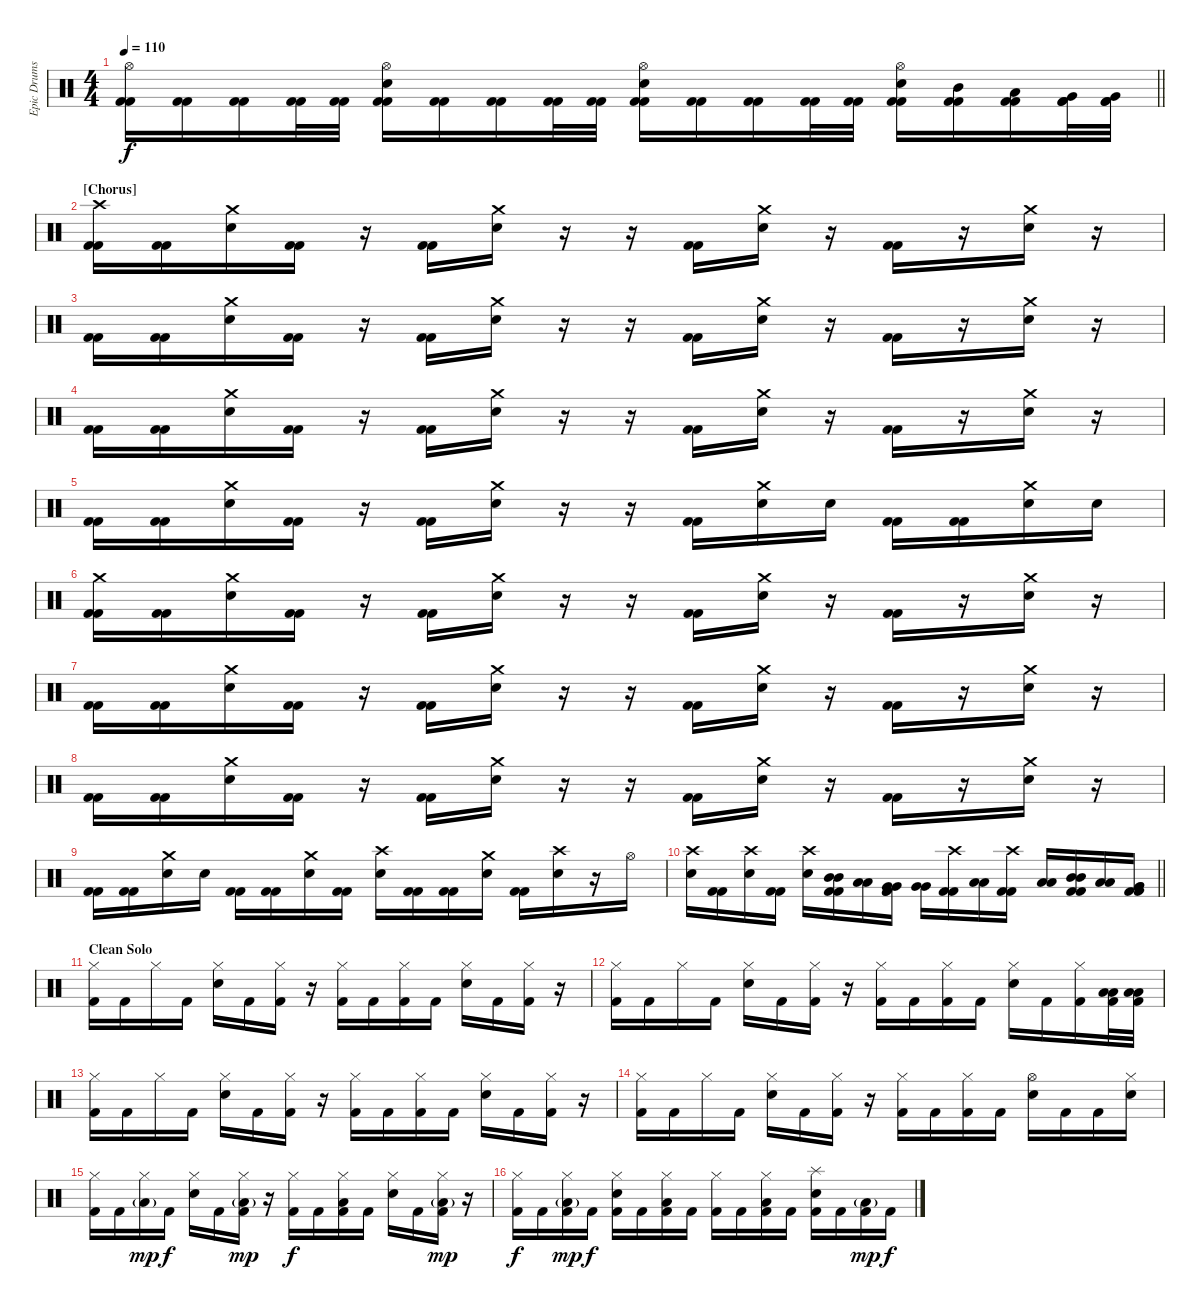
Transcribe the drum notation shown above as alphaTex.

\track ("Epic Drums" "Epic Drums") {instrument percussion}
\staff {score}
\articulation defaults
\ts (4 4)
\tempo 110
\clef neutral
\barLineRight lightlight
\ks c
("Hi-Hat (open)" "Kick (hit) 2" "Kick (hit) 2").16{dy f} ("Kick (hit) 2" "Kick (hit) 2").16 ("Kick (hit) 2" "Kick (hit) 2").16 ("Kick (hit) 2" "Kick (hit) 2").32 ("Kick (hit) 2" "Kick (hit) 2").32 ("Hi-Hat (open)" "Electric Snare (hit)" "Kick (hit) 2" "Kick (hit) 2").16 ("Kick (hit) 2" "Kick (hit) 2").16 ("Kick (hit) 2" "Kick (hit) 2").16 ("Kick (hit) 2" "Kick (hit) 2").32 ("Kick (hit) 2" "Kick (hit) 2").32 ("Hi-Hat (open)" "Electric Snare (hit)" "Kick (hit) 2" "Kick (hit) 2").16 ("Kick (hit) 2" "Kick (hit) 2").16 ("Kick (hit) 2" "Kick (hit) 2").16 ("Kick (hit) 2" "Kick (hit) 2").32 ("Kick (hit) 2" "Kick (hit) 2").32 ("Hi-Hat (open)" "Electric Snare (hit)" "Kick (hit) 2" "Kick (hit) 2").16 ("Mid Tom (hit)" "Kick (hit) 2" "Kick (hit) 2").16 ("Low Tom (hit)" "Kick (hit) 2" "Kick (hit) 2").16 ("Very Low Tom (hit)" "Kick (hit) 2" "Kick (hit) 2").32 ("Very Low Tom (hit)" "Kick (hit) 2" "Kick (hit) 2").32 |
\section ("" "[Chorus]")
("Crash high (hit)" "Kick (hit) 2" "Kick (hit) 2").16 ("Kick (hit) 2" "Kick (hit) 2").16 ("Crash medium (hit)" "Electric Snare (hit)").16 ("Kick (hit) 2" "Kick (hit) 2").16 r.16 ("Kick (hit) 2" "Kick (hit) 2").16 ("Crash medium (hit)" "Electric Snare (hit)").16 r.16 r.16 ("Kick (hit) 2" "Kick (hit) 2").16 ("Crash medium (hit)" "Electric Snare (hit)").16 r.16 ("Kick (hit) 2" "Kick (hit) 2").16 r.16 ("Crash medium (hit)" "Electric Snare (hit)").16 r.16 |
("Kick (hit) 2" "Kick (hit) 2").16 ("Kick (hit) 2" "Kick (hit) 2").16 ("Crash medium (hit)" "Electric Snare (hit)").16 ("Kick (hit) 2" "Kick (hit) 2").16 r.16 ("Kick (hit) 2" "Kick (hit) 2").16 ("Crash medium (hit)" "Electric Snare (hit)").16 r.16 r.16 ("Kick (hit) 2" "Kick (hit) 2").16 ("Crash medium (hit)" "Electric Snare (hit)").16 r.16 ("Kick (hit) 2" "Kick (hit) 2").16 r.16 ("Crash medium (hit)" "Electric Snare (hit)").16 r.16 |
("Kick (hit) 2" "Kick (hit) 2").16 ("Kick (hit) 2" "Kick (hit) 2").16 ("Crash medium (hit)" "Electric Snare (hit)").16 ("Kick (hit) 2" "Kick (hit) 2").16 r.16 ("Kick (hit) 2" "Kick (hit) 2").16 ("Crash medium (hit)" "Electric Snare (hit)").16 r.16 r.16 ("Kick (hit) 2" "Kick (hit) 2").16 ("Crash medium (hit)" "Electric Snare (hit)").16 r.16 ("Kick (hit) 2" "Kick (hit) 2").16 r.16 ("Crash medium (hit)" "Electric Snare (hit)").16 r.16 |
("Kick (hit) 2" "Kick (hit) 2").16 ("Kick (hit) 2" "Kick (hit) 2").16 ("Crash medium (hit)" "Electric Snare (hit)").16 ("Kick (hit) 2" "Kick (hit) 2").16 r.16 ("Kick (hit) 2" "Kick (hit) 2").16 ("Crash medium (hit)" "Electric Snare (hit)").16 r.16 r.16 ("Kick (hit) 2" "Kick (hit) 2").16 ("Crash medium (hit)" "Electric Snare (hit)").16 "Electric Snare (hit)".16 ("Kick (hit) 2" "Kick (hit) 2").16 ("Kick (hit) 2" "Kick (hit) 2").16 ("Crash medium (hit)" "Electric Snare (hit)").16 "Electric Snare (hit)".16 |
("Crash medium (hit)" "Kick (hit) 2" "Kick (hit) 2").16 ("Kick (hit) 2" "Kick (hit) 2").16 ("Crash medium (hit)" "Electric Snare (hit)").16 ("Kick (hit) 2" "Kick (hit) 2").16 r.16 ("Kick (hit) 2" "Kick (hit) 2").16 ("Crash medium (hit)" "Electric Snare (hit)").16 r.16 r.16 ("Kick (hit) 2" "Kick (hit) 2").16 ("Crash medium (hit)" "Electric Snare (hit)").16 r.16 ("Kick (hit) 2" "Kick (hit) 2").16 r.16 ("Crash medium (hit)" "Electric Snare (hit)").16 r.16 |
("Kick (hit) 2" "Kick (hit) 2").16 ("Kick (hit) 2" "Kick (hit) 2").16 ("Crash medium (hit)" "Electric Snare (hit)").16 ("Kick (hit) 2" "Kick (hit) 2").16 r.16 ("Kick (hit) 2" "Kick (hit) 2").16 ("Crash medium (hit)" "Electric Snare (hit)").16 r.16 r.16 ("Kick (hit) 2" "Kick (hit) 2").16 ("Crash medium (hit)" "Electric Snare (hit)").16 r.16 ("Kick (hit) 2" "Kick (hit) 2").16 r.16 ("Crash medium (hit)" "Electric Snare (hit)").16 r.16 |
("Kick (hit) 2" "Kick (hit) 2").16 ("Kick (hit) 2" "Kick (hit) 2").16 ("Crash medium (hit)" "Electric Snare (hit)").16 ("Kick (hit) 2" "Kick (hit) 2").16 r.16 ("Kick (hit) 2" "Kick (hit) 2").16 ("Crash medium (hit)" "Electric Snare (hit)").16 r.16 r.16 ("Kick (hit) 2" "Kick (hit) 2").16 ("Crash medium (hit)" "Electric Snare (hit)").16 r.16 ("Kick (hit) 2" "Kick (hit) 2").16 r.16 ("Crash medium (hit)" "Electric Snare (hit)").16 r.16 |
("Kick (hit) 2" "Kick (hit) 2").16 ("Kick (hit) 2" "Kick (hit) 2").16 ("Crash medium (hit)" "Electric Snare (hit)").16 "Electric Snare (hit)".16 ("Kick (hit) 2" "Kick (hit) 2").16 ("Kick (hit) 2" "Kick (hit) 2").16 ("Crash medium (hit)" "Electric Snare (hit)").16 ("Kick (hit) 2" "Kick (hit) 2").16 ("Crash high (hit)" "Electric Snare (hit)").16 ("Kick (hit) 2" "Kick (hit) 2").16 ("Kick (hit) 2" "Kick (hit) 2").16 ("Crash medium (hit)" "Electric Snare (hit)").16 ("Kick (hit) 2" "Kick (hit) 2").16 ("Crash high (hit)" "Electric Snare (hit)").16 r.16 "Hi-Hat (open)".16 |
\barLineRight lightlight
("Crash high (hit)" "Electric Snare (hit)").16 ("Kick (hit) 2" "Kick (hit) 2").16 ("Crash high (hit)" "Electric Snare (hit)").16 ("Kick (hit) 2" "Kick (hit) 2").16 ("Crash high (hit)" "Electric Snare (hit)").16 ("Mid Tom (hit)" "Mid Tom (hit)" "Kick (hit) 2" "Kick (hit) 2").16 ("Low Tom (hit)" "Low Tom (hit)").16 ("Very Low Tom (hit)" "Very Low Tom (hit)" "Kick (hit) 2" "Kick (hit) 2").16 ("Very Low Tom (hit)" "Very Low Tom (hit)").16 ("Crash high (hit)" "Kick (hit) 2" "Kick (hit) 2").16 ("Low Tom (hit)" "Low Tom (hit)").16 ("Crash high (hit)" "Kick (hit) 2" "Kick (hit) 2").16 ("Low Tom (hit)" "Low Tom (hit)").16 ("Mid Tom (hit)" "Mid Tom (hit)" "Kick (hit) 2" "Kick (hit) 2").16 ("Low Tom (hit)" "Low Tom (hit)").16 ("Very Low Tom (hit)" "Very Low Tom (hit)" "Kick (hit) 2" "Kick (hit) 2").16 |
\section ("" "Clean Solo")
("Hi-Hat (closed)" "Kick (hit) 2").16 "Kick (hit) 2".16 "Hi-Hat (closed)".16 "Kick (hit) 2".16 ("Hi-Hat (closed)" "Snare (hit) 2").16 "Kick (hit) 2".16 ("Hi-Hat (closed)" "Kick (hit) 2").16 r.16 ("Hi-Hat (closed)" "Kick (hit) 2").16 "Kick (hit) 2".16 ("Hi-Hat (closed)" "Kick (hit) 2").16 "Kick (hit) 2".16 ("Hi-Hat (closed)" "Snare (hit) 2").16 "Kick (hit) 2".16 ("Hi-Hat (closed)" "Kick (hit) 2").16 r.16 |
("Hi-Hat (closed)" "Kick (hit) 2").16 "Kick (hit) 2".16 "Hi-Hat (closed)".16 "Kick (hit) 2".16 ("Hi-Hat (closed)" "Snare (hit) 2").16 "Kick (hit) 2".16 ("Hi-Hat (closed)" "Kick (hit) 2").16 r.16 ("Hi-Hat (closed)" "Kick (hit) 2").16 "Kick (hit) 2".16 ("Hi-Hat (closed)" "Kick (hit) 2").16 "Kick (hit) 2".16 ("Hi-Hat (closed)" "Snare (hit) 2").16 "Kick (hit) 2".16 ("Hi-Hat (closed)" "Kick (hit) 2").16 ("Low Tom (hit)" "Low Tom (hit)" "Kick (hit) 2").32 ("Low Tom (hit)" "Low Tom (hit)" "Kick (hit) 2").32 |
("Hi-Hat (closed)" "Kick (hit) 2").16 "Kick (hit) 2".16 "Hi-Hat (closed)".16 "Kick (hit) 2".16 ("Hi-Hat (closed)" "Snare (hit) 2").16 "Kick (hit) 2".16 ("Hi-Hat (closed)" "Kick (hit) 2").16 r.16 ("Hi-Hat (closed)" "Kick (hit) 2").16 "Kick (hit) 2".16 ("Hi-Hat (closed)" "Kick (hit) 2").16 "Kick (hit) 2".16 ("Hi-Hat (closed)" "Snare (hit) 2").16 "Kick (hit) 2".16 ("Hi-Hat (closed)" "Kick (hit) 2").16 r.16 |
("Hi-Hat (closed)" "Kick (hit) 2").16 "Kick (hit) 2".16 "Hi-Hat (closed)".16 "Kick (hit) 2".16 ("Hi-Hat (closed)" "Snare (hit) 2").16 "Kick (hit) 2".16 ("Hi-Hat (closed)" "Kick (hit) 2").16 r.16 ("Hi-Hat (closed)" "Kick (hit) 2").16 "Kick (hit) 2".16 ("Hi-Hat (closed)" "Kick (hit) 2").16 "Kick (hit) 2".16 ("Hi-Hat (open)" "Electric Snare (hit)").16 "Kick (hit) 2".16 "Kick (hit) 2".16 ("Hi-Hat (closed)" "Electric Snare (hit)").16 |
("Hi-Hat (closed)" "Kick (hit) 2").16 "Kick (hit) 2".16 ("Low Tom (hit)"{g} "Hi-Hat (closed)").16{dy mp} "Kick (hit) 2".16{dy f} ("Hi-Hat (closed)" "Snare (hit) 2").16 "Kick (hit) 2".16 ("Low Tom (hit)"{g} "Hi-Hat (closed)" "Kick (hit) 2").16{dy mp} r.16 ("Hi-Hat (closed)" "Kick (hit) 2").16{dy f} "Kick (hit) 2".16 ("Low Tom (hit)" "Hi-Hat (closed)" "Kick (hit) 2").16 "Kick (hit) 2".16 ("Hi-Hat (closed)" "Snare (hit) 2").16 "Kick (hit) 2".16 ("Low Tom (hit)"{g} "Hi-Hat (closed)" "Kick (hit) 2").16{dy mp} r.16 |
("Hi-Hat (closed)" "Kick (hit) 2").16{dy f} "Kick (hit) 2".16 ("Low Tom (hit)"{g} "Hi-Hat (closed)" "Kick (hit) 2").16{dy mp} "Kick (hit) 2".16{dy f} ("Hi-Hat (closed)" "Snare (hit) 2" "Kick (hit) 2").16 "Kick (hit) 2".16 ("Low Tom (hit)" "Hi-Hat (closed)" "Kick (hit) 2").16 "Kick (hit) 2".16 ("Hi-Hat (closed)" "Kick (hit) 2").16 "Kick (hit) 2".16 ("Low Tom (hit)" "Hi-Hat (closed)" "Kick (hit) 2").16 "Kick (hit) 2".16 ("Splash (hit)" "Snare (hit) 2" "Kick (hit) 2").16 "Kick (hit) 2".16 ("Low Tom (hit)"{g} "Kick (hit) 2").16{dy mp} "Kick (hit) 2".16{dy f}
